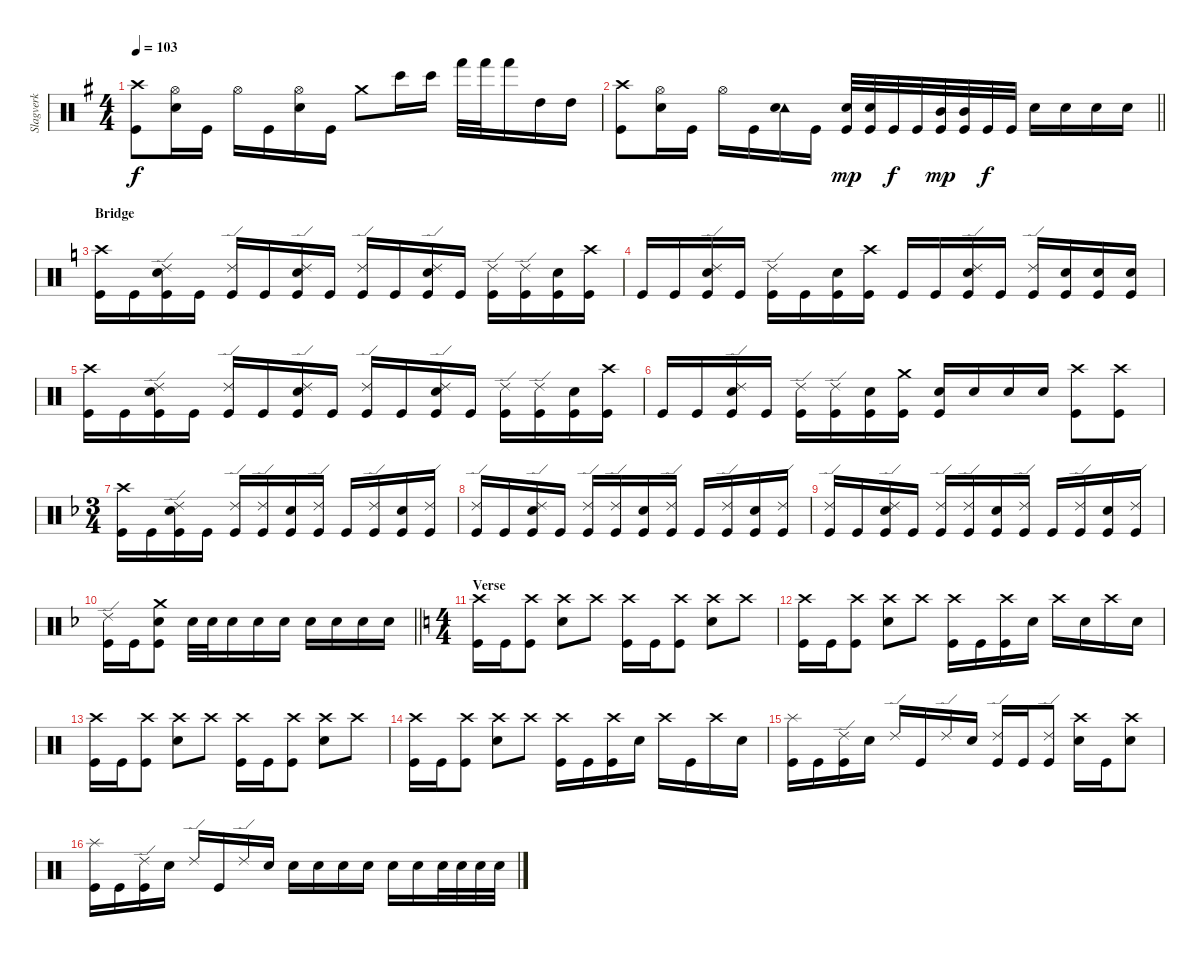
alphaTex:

\track ("Slagverk" "Slagverk") {instrument percussion}
\staff {score}
\articulation defaults
\ts (4 4)
\tempo 103
\clef neutral
\ks g
("Crash high (hit)" "Kick (hit)").8{dy f} ("Hi-Hat (open)" "Electric Snare (hit)").16 "Kick (hit)".16 "Hi-Hat (open)".16 "Kick (hit)".16 ("Electric Snare (hit)" "Hi-Hat (open)").16 "Kick (hit)".16 "Crash medium (hit)".8 "Bongo High (hit)".16 "Bongo High (hit)".16 "Hand (hit)".32 "Hand (hit)".32 "Hand (hit)".16 "High Tom (hit)".16 "High Tom (hit)".16 |
\barLineRight lightlight
("Crash high (hit)" "Kick (hit)").8 ("Hi-Hat (open)" "Electric Snare (hit)").16 "Kick (hit)".16 "Hi-Hat (open)".16 "Kick (hit)".16 ("Tambourine (hit)" "Electric Snare (hit)").16 "Kick (hit)".16 ("Electric Snare (hit)" "Kick (hit)").32{dy mp} ("Electric Snare (hit)" "Kick (hit)").32 "Kick (hit)".32{dy f} "Kick (hit)".32 ("Mid Tom (hit)" "Kick (hit)").32{dy mp} ("Mid Tom (hit)" "Kick (hit)").32 "Kick (hit)".32{dy f} "Kick (hit)".32 "Electric Snare (hit)".16 "Electric Snare (hit)".16 "Electric Snare (hit)".16 "Electric Snare (hit)".16 |
\section ("" "Bridge")
\ks c
("Crash high (hit)" "Kick (hit)").16 "Kick (hit)".16 ("Ride (edge) 2" "Electric Snare (hit)" "Kick (hit)").16 "Kick (hit)".16 ("Ride (edge) 2" "Kick (hit)").16 "Kick (hit)".16 ("Ride (edge) 2" "Electric Snare (hit)" "Kick (hit)").16 "Kick (hit)".16 ("Ride (edge) 2" "Kick (hit)").16 "Kick (hit)".16 ("Ride (edge) 2" "Electric Snare (hit)" "Kick (hit)").16 "Kick (hit)".16 ("Ride (edge) 2" "Kick (hit)").16 ("Ride (edge) 2" "Kick (hit)").16 ("Electric Snare (hit)" "Kick (hit)").16 ("Crash high (hit)" "Kick (hit)").16 |
"Kick (hit)".16 "Kick (hit)".16 ("Ride (edge) 2" "Electric Snare (hit)" "Kick (hit)").16 "Kick (hit)".16 ("Ride (edge) 2" "Kick (hit)").16 "Kick (hit)".16 ("Electric Snare (hit)" "Kick (hit)").16 ("Crash high (hit)" "Kick (hit)").16 "Kick (hit)".16 "Kick (hit)".16 ("Ride (edge) 2" "Electric Snare (hit)" "Kick (hit)").16 "Kick (hit)".16 ("Ride (edge) 2" "Kick (hit)").16 ("Electric Snare (hit)" "Kick (hit)").16 ("Electric Snare (hit)" "Kick (hit)").16 ("Electric Snare (hit)" "Kick (hit)").16 |
("Crash high (hit)" "Kick (hit)").16 "Kick (hit)".16 ("Ride (edge) 2" "Electric Snare (hit)" "Kick (hit)").16 "Kick (hit)".16 ("Ride (edge) 2" "Kick (hit)").16 "Kick (hit)".16 ("Ride (edge) 2" "Electric Snare (hit)" "Kick (hit)").16 "Kick (hit)".16 ("Ride (edge) 2" "Kick (hit)").16 "Kick (hit)".16 ("Ride (edge) 2" "Electric Snare (hit)" "Kick (hit)").16 "Kick (hit)".16 ("Ride (edge) 2" "Kick (hit)").16 ("Ride (edge) 2" "Kick (hit)").16 ("Electric Snare (hit)" "Kick (hit)").16 ("Crash high (hit)" "Kick (hit)").16 |
"Kick (hit)".16 "Kick (hit)".16 ("Ride (edge) 2" "Electric Snare (hit)" "Kick (hit)").16 "Kick (hit)".16 ("Ride (edge) 2" "Kick (hit)").16 ("Ride (edge) 2" "Kick (hit)").16 ("Electric Snare (hit)" "Kick (hit)").16 ("Crash medium (hit)" "Kick (hit)").16 ("Electric Snare (hit)" "Kick (hit)").16 "Electric Snare (hit)".16 "Electric Snare (hit)".16 "Electric Snare (hit)".16 ("Crash high (hit)" "Kick (hit)").8 ("Crash high (hit)" "Kick (hit)").8 |
\ts (3 4)
\ks f
("Crash high (hit)" "Kick (hit)").16 "Kick (hit)".16 ("Ride (edge) 2" "Electric Snare (hit)" "Kick (hit)").16 "Kick (hit)".16 ("Ride (edge) 2" "Kick (hit)").16 ("Ride (edge) 2" "Kick (hit)").16 ("Electric Snare (hit)" "Kick (hit)").16 ("Ride (edge) 2" "Kick (hit)").16 "Kick (hit)".16 ("Ride (edge) 2" "Kick (hit)").16 ("Electric Snare (hit)" "Kick (hit)").16 ("Ride (edge) 2" "Kick (hit)").16 |
("Ride (edge) 2" "Kick (hit)").16 "Kick (hit)".16 ("Ride (edge) 2" "Electric Snare (hit)" "Kick (hit)").16 "Kick (hit)".16 ("Ride (edge) 2" "Kick (hit)").16 ("Ride (edge) 2" "Kick (hit)").16 ("Electric Snare (hit)" "Kick (hit)").16 ("Ride (edge) 2" "Kick (hit)").16 "Kick (hit)".16 ("Ride (edge) 2" "Kick (hit)").16 ("Electric Snare (hit)" "Kick (hit)").16 ("Ride (edge) 2" "Kick (hit)").16 |
("Ride (edge) 2" "Kick (hit)").16 "Kick (hit)".16 ("Ride (edge) 2" "Electric Snare (hit)" "Kick (hit)").16 "Kick (hit)".16 ("Ride (edge) 2" "Kick (hit)").16 ("Ride (edge) 2" "Kick (hit)").16 ("Electric Snare (hit)" "Kick (hit)").16 ("Ride (edge) 2" "Kick (hit)").16 "Kick (hit)".16 ("Ride (edge) 2" "Kick (hit)").16 ("Electric Snare (hit)" "Kick (hit)").16 ("Ride (edge) 2" "Kick (hit)").16 |
\barLineRight lightlight
("Ride (edge) 2" "Kick (hit)").16 "Kick (hit)".16 ("Crash medium (hit)" "Electric Snare (hit)" "Kick (hit)").8 "Electric Snare (hit)".32 "Electric Snare (hit)".32 "Electric Snare (hit)".16 "Electric Snare (hit)".16 "Electric Snare (hit)".16 "Electric Snare (hit)".16 "Electric Snare (hit)".16 "Electric Snare (hit)".16 "Electric Snare (hit)".16 |
\ts (4 4)
\section ("" "Verse")
\ks c
("Crash high (hit)" "Kick (hit)").16 "Kick (hit)".16 ("Crash high (hit)" "Kick (hit)").8 ("Crash high (hit)" "Electric Snare (hit)").8 "Crash high (hit)".8 ("Crash high (hit)" "Kick (hit)").16 "Kick (hit)".16 ("Crash high (hit)" "Kick (hit)").8 ("Crash high (hit)" "Electric Snare (hit)").8 "Crash high (hit)".8 |
("Crash high (hit)" "Kick (hit)").16 "Kick (hit)".16 ("Crash high (hit)" "Kick (hit)").8 ("Crash high (hit)" "Electric Snare (hit)").8 "Crash high (hit)".8 ("Crash high (hit)" "Kick (hit)").16 "Kick (hit)".16 ("Crash high (hit)" "Kick (hit)").16 "Electric Snare (hit)".16 "Crash high (hit)".16 "Electric Snare (hit)".16 "Crash high (hit)".16 "Electric Snare (hit)".16 |
("Crash high (hit)" "Kick (hit)").16 "Kick (hit)".16 ("Crash high (hit)" "Kick (hit)").8 ("Crash high (hit)" "Electric Snare (hit)").8 "Crash high (hit)".8 ("Crash high (hit)" "Kick (hit)").16 "Kick (hit)".16 ("Crash high (hit)" "Kick (hit)").8 ("Crash high (hit)" "Electric Snare (hit)").8 "Crash high (hit)".8 |
("Crash high (hit)" "Kick (hit)").16 "Kick (hit)".16 ("Crash high (hit)" "Kick (hit)").8 ("Crash high (hit)" "Electric Snare (hit)").8 "Crash high (hit)".8 ("Crash high (hit)" "Kick (hit)").16 "Kick (hit)".16 ("Crash high (hit)" "Kick (hit)").16 "Electric Snare (hit)".16 "Crash high (hit)".16 "Kick (hit)".16 "Crash high (hit)".16 "Electric Snare (hit)".16 |
("Splash (hit)" "Kick (hit)").16 "Kick (hit)".16 ("Ride (edge) 2" "Kick (hit)").16 "Electric Snare (hit)".16 "Ride (edge) 2".16 "Kick (hit)".16 "Ride (edge) 2".16 "Electric Snare (hit)".16 ("Ride (edge) 2" "Kick (hit)").16 "Kick (hit)".16 ("Ride (edge) 2" "Kick (hit)").8 ("Crash high (hit)" "Electric Snare (hit)").16 "Kick (hit)".16 ("Crash high (hit)" "Electric Snare (hit)").8 |
("Splash (hit)" "Kick (hit)").16 "Kick (hit)".16 ("Ride (edge) 2" "Kick (hit)").16 "Electric Snare (hit)".16 "Ride (edge) 2".16 "Kick (hit)".16 "Ride (edge) 2".16 "Electric Snare (hit)".16 "Electric Snare (hit)".16 "Electric Snare (hit)".16 "Electric Snare (hit)".16 "Electric Snare (hit)".16 "Electric Snare (hit)".16 "Electric Snare (hit)".16 "Electric Snare (hit)".32 "Electric Snare (hit)".32 "Electric Snare (hit)".32 "Electric Snare (hit)".32
